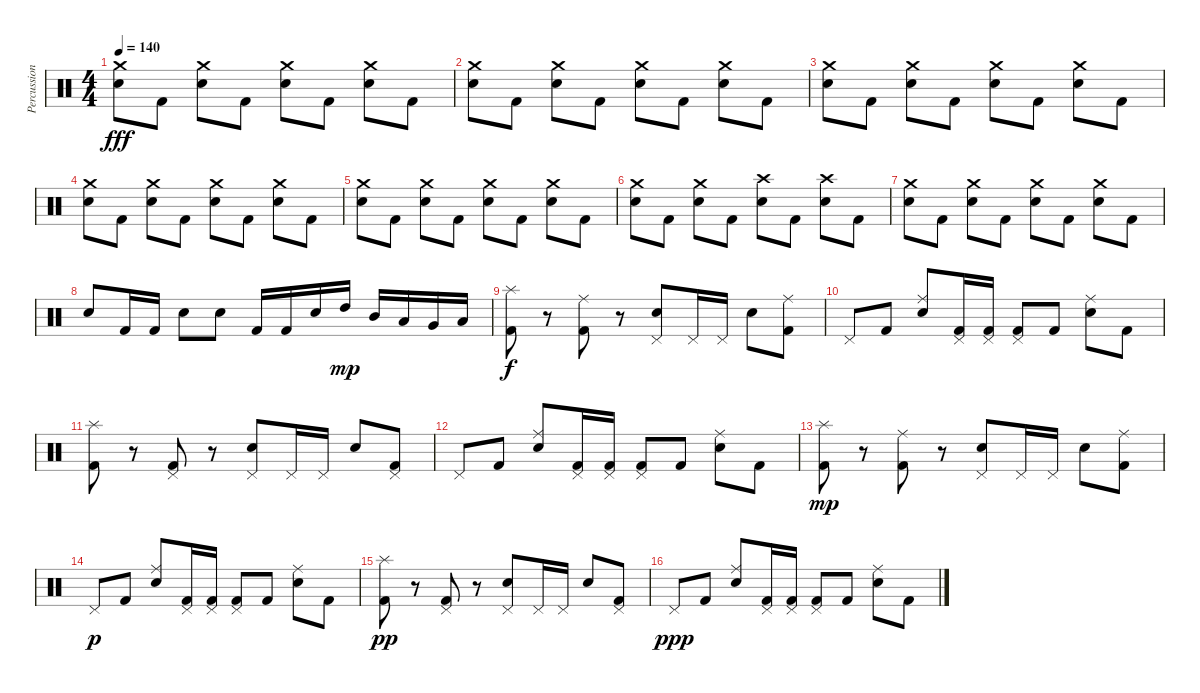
\track ("Percussion" "Percussion") {instrument percussion}
\staff {score}
\articulation defaults
\ts (4 4)
\tempo 140
\clef neutral
\ks c
("Crash medium (hit)" "Electric Snare (hit)").8{dy fff} "Kick (hit) 2".8 ("Crash medium (hit)" "Electric Snare (hit)").8 "Kick (hit) 2".8 ("Crash medium (hit)" "Electric Snare (hit)").8 "Kick (hit) 2".8 ("Crash medium (hit)" "Electric Snare (hit)").8 "Kick (hit) 2".8 |
("Crash medium (hit)" "Electric Snare (hit)").8 "Kick (hit) 2".8 ("Crash medium (hit)" "Electric Snare (hit)").8 "Kick (hit) 2".8 ("Crash medium (hit)" "Electric Snare (hit)").8 "Kick (hit) 2".8 ("Crash medium (hit)" "Electric Snare (hit)").8 "Kick (hit) 2".8 |
("Crash medium (hit)" "Electric Snare (hit)").8 "Kick (hit) 2".8 ("Crash medium (hit)" "Electric Snare (hit)").8 "Kick (hit) 2".8 ("Crash medium (hit)" "Electric Snare (hit)").8 "Kick (hit) 2".8 ("Crash medium (hit)" "Electric Snare (hit)").8 "Kick (hit) 2".8 |
("Crash medium (hit)" "Electric Snare (hit)").8 "Kick (hit) 2".8 ("Crash medium (hit)" "Electric Snare (hit)").8 "Kick (hit) 2".8 ("Crash medium (hit)" "Electric Snare (hit)").8 "Kick (hit) 2".8 ("Crash medium (hit)" "Electric Snare (hit)").8 "Kick (hit) 2".8 |
("Crash medium (hit)" "Electric Snare (hit)").8 "Kick (hit) 2".8 ("Crash medium (hit)" "Electric Snare (hit)").8 "Kick (hit) 2".8 ("Crash medium (hit)" "Electric Snare (hit)").8 "Kick (hit) 2".8 ("Crash medium (hit)" "Electric Snare (hit)").8 "Kick (hit) 2".8 |
("Crash medium (hit)" "Electric Snare (hit)").8 "Kick (hit) 2".8 ("Crash medium (hit)" "Electric Snare (hit)").8 "Kick (hit) 2".8 ("Crash high (hit)" "Electric Snare (hit)").8 "Kick (hit) 2".8 ("Crash high (hit)" "Electric Snare (hit)").8 "Kick (hit) 2".8 |
("Crash medium (hit)" "Electric Snare (hit)").8 "Kick (hit) 2".8 ("Crash medium (hit)" "Electric Snare (hit)").8 "Kick (hit) 2".8 ("Crash medium (hit)" "Electric Snare (hit)").8 "Kick (hit) 2".8 ("Crash medium (hit)" "Electric Snare (hit)").8 "Kick (hit) 2".8 |
"Electric Snare (hit)".8 "Kick (hit) 2".16 "Kick (hit) 2".16 "Electric Snare (hit)".8 "Electric Snare (hit)".8 "Kick (hit) 2".16 "Kick (hit) 2".16 "Electric Snare (hit)".16 "High Tom (hit)".16{dy mp} "Mid Tom (hit)".16 "Low Tom (hit)".16 "Very Low Tom (hit)".16 "Low Floor Tom (hit)".16 |
("Splash (hit)" "Kick (hit) 2").8{dy f volume 6} r.8 ("Ride (middle)" "Kick (hit) 2").8 r.8 ("Pedal Hi-Hat (hit)" "Snare (hit) 2").8 "Pedal Hi-Hat (hit)".16 "Pedal Hi-Hat (hit)".16 "Snare (hit) 2".8 ("Ride (middle)" "Kick (hit) 2").8 |
"Pedal Hi-Hat (hit)".8 "Kick (hit) 2".8 ("Ride (middle)" "Snare (hit) 2").8 ("Pedal Hi-Hat (hit)" "Kick (hit) 2").16 ("Pedal Hi-Hat (hit)" "Kick (hit) 2").16 ("Pedal Hi-Hat (hit)" "Kick (hit) 2").8 "Kick (hit) 2".8 ("Ride (middle)" "Snare (hit) 2").8 "Kick (hit) 2".8 |
("Splash (hit)" "Kick (hit) 2").8{volume 6} r.8 ("Pedal Hi-Hat (hit)" "Kick (hit) 2").8 r.8 ("Pedal Hi-Hat (hit)" "Snare (hit) 2").8 "Pedal Hi-Hat (hit)".16 "Pedal Hi-Hat (hit)".16 "Snare (hit) 2".8 ("Pedal Hi-Hat (hit)" "Kick (hit) 2").8 |
"Pedal Hi-Hat (hit)".8 "Kick (hit) 2".8 ("Ride (middle)" "Snare (hit) 2").8 ("Pedal Hi-Hat (hit)" "Kick (hit) 2").16 ("Pedal Hi-Hat (hit)" "Kick (hit) 2").16 ("Pedal Hi-Hat (hit)" "Kick (hit) 2").8 "Kick (hit) 2".8 ("Ride (middle)" "Snare (hit) 2").8 "Kick (hit) 2".8 |
("Splash (hit)" "Kick (hit) 2").8{dy mp volume 6} r.8 ("Ride (middle)" "Kick (hit) 2").8 r.8 ("Pedal Hi-Hat (hit)" "Snare (hit) 2").8 "Pedal Hi-Hat (hit)".16 "Pedal Hi-Hat (hit)".16 "Snare (hit) 2".8 ("Ride (middle)" "Kick (hit) 2").8 |
"Pedal Hi-Hat (hit)".8{dy p} "Kick (hit) 2".8 ("Ride (middle)" "Snare (hit) 2").8 ("Pedal Hi-Hat (hit)" "Kick (hit) 2").16 ("Pedal Hi-Hat (hit)" "Kick (hit) 2").16 ("Pedal Hi-Hat (hit)" "Kick (hit) 2").8 "Kick (hit) 2".8 ("Ride (middle)" "Snare (hit) 2").8 "Kick (hit) 2".8 |
("Splash (hit)" "Kick (hit) 2").8{dy pp volume 6} r.8 ("Pedal Hi-Hat (hit)" "Kick (hit) 2").8 r.8 ("Pedal Hi-Hat (hit)" "Snare (hit) 2").8 "Pedal Hi-Hat (hit)".16 "Pedal Hi-Hat (hit)".16 "Snare (hit) 2".8 ("Pedal Hi-Hat (hit)" "Kick (hit) 2").8 |
"Pedal Hi-Hat (hit)".8{dy ppp} "Kick (hit) 2".8 ("Ride (middle)" "Snare (hit) 2").8 ("Pedal Hi-Hat (hit)" "Kick (hit) 2").16 ("Pedal Hi-Hat (hit)" "Kick (hit) 2").16 ("Pedal Hi-Hat (hit)" "Kick (hit) 2").8 "Kick (hit) 2".8 ("Ride (middle)" "Snare (hit) 2").8 "Kick (hit) 2".8
